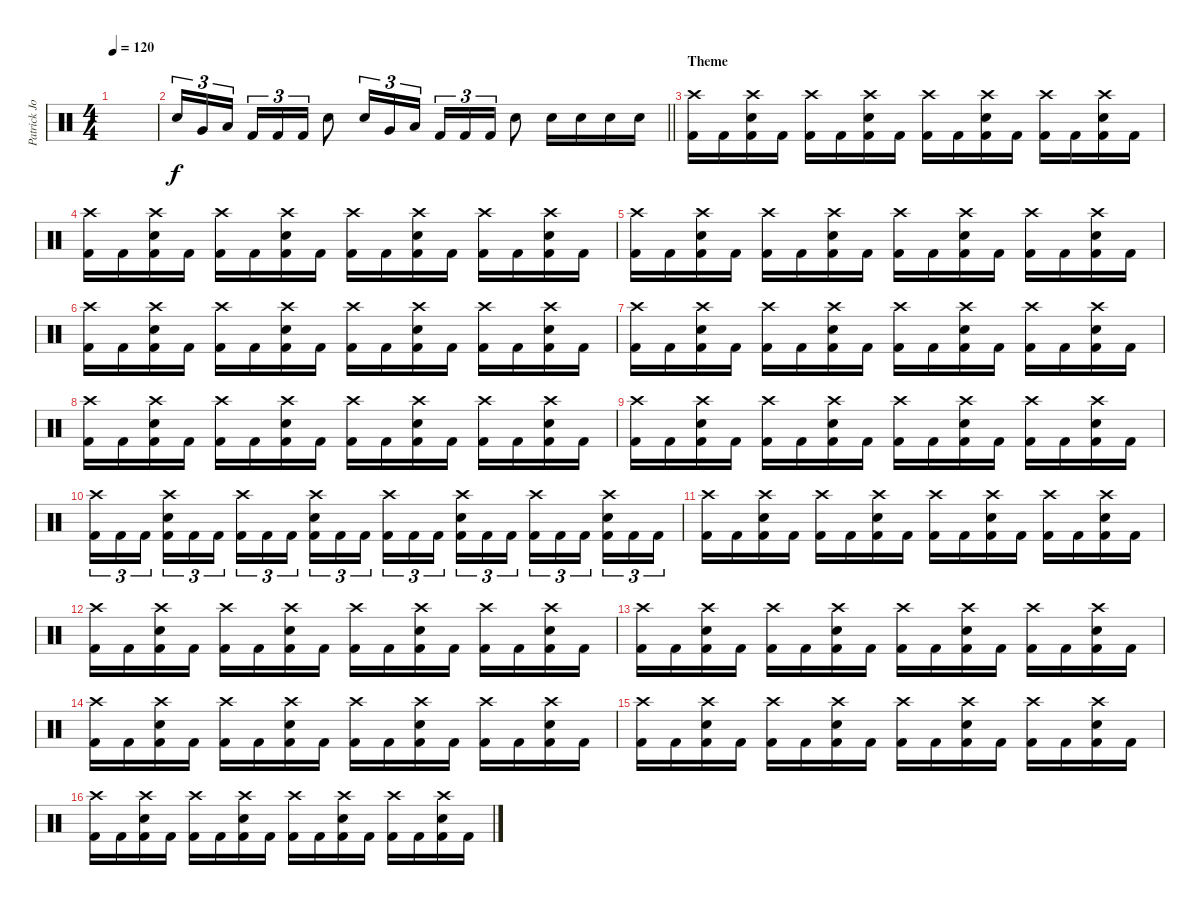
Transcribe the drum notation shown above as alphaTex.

\track ("Patrick Johansson" "Patrick Jo") {instrument percussion}
\staff {score}
\articulation defaults
\ts (4 4)
\tempo 120
\clef neutral
\ks c
|
\barLineRight lightlight "Snare (hit) 2".16{tu (3 2)} "Very Low Tom (hit)".16{tu (3 2)} "Low Floor Tom (hit)".16{tu (3 2) beam splitsecondary} "Kick (hit) 2".16{tu (3 2)} "Kick (hit) 2".16{tu (3 2)} "Kick (hit) 2".16{tu (3 2)} "Snare (hit) 2".8 "Snare (hit) 2".16{tu (3 2)} "Very Low Tom (hit)".16{tu (3 2)} "Low Floor Tom (hit)".16{tu (3 2)} "Kick (hit) 2".16{tu (3 2)} "Kick (hit) 2".16{tu (3 2)} "Kick (hit) 2".16{tu (3 2)} "Snare (hit) 2".8 "Snare (hit) 2".16 "Snare (hit) 2".16 "Snare (hit) 2".16 "Snare (hit) 2".16
|
\section ("" "Theme")
("Crash high (hit)" "Kick (hit) 2").16 "Kick (hit) 2".16 ("Crash high (hit)" "Snare (hit) 2" "Kick (hit) 2").16 "Kick (hit) 2".16 ("Crash high (hit)" "Kick (hit) 2").16 "Kick (hit) 2".16 ("Crash high (hit)" "Snare (hit) 2" "Kick (hit) 2").16 "Kick (hit) 2".16 ("Crash high (hit)" "Kick (hit) 2").16 "Kick (hit) 2".16 ("Crash high (hit)" "Snare (hit) 2" "Kick (hit) 2").16 "Kick (hit) 2".16 ("Crash high (hit)" "Kick (hit) 2").16 "Kick (hit) 2".16 ("Crash high (hit)" "Snare (hit) 2" "Kick (hit) 2").16 "Kick (hit) 2".16 |
("Crash high (hit)" "Kick (hit) 2").16 "Kick (hit) 2".16 ("Crash high (hit)" "Snare (hit) 2" "Kick (hit) 2").16 "Kick (hit) 2".16 ("Crash high (hit)" "Kick (hit) 2").16 "Kick (hit) 2".16 ("Crash high (hit)" "Snare (hit) 2" "Kick (hit) 2").16 "Kick (hit) 2".16 ("Crash high (hit)" "Kick (hit) 2").16 "Kick (hit) 2".16 ("Crash high (hit)" "Snare (hit) 2" "Kick (hit) 2").16 "Kick (hit) 2".16 ("Crash high (hit)" "Kick (hit) 2").16 "Kick (hit) 2".16 ("Crash high (hit)" "Snare (hit) 2" "Kick (hit) 2").16 "Kick (hit) 2".16 |
("Crash high (hit)" "Kick (hit) 2").16 "Kick (hit) 2".16 ("Crash high (hit)" "Snare (hit) 2" "Kick (hit) 2").16 "Kick (hit) 2".16 ("Crash high (hit)" "Kick (hit) 2").16 "Kick (hit) 2".16 ("Crash high (hit)" "Snare (hit) 2" "Kick (hit) 2").16 "Kick (hit) 2".16 ("Crash high (hit)" "Kick (hit) 2").16 "Kick (hit) 2".16 ("Crash high (hit)" "Snare (hit) 2" "Kick (hit) 2").16 "Kick (hit) 2".16 ("Crash high (hit)" "Kick (hit) 2").16 "Kick (hit) 2".16 ("Crash high (hit)" "Snare (hit) 2" "Kick (hit) 2").16 "Kick (hit) 2".16 |
("Crash high (hit)" "Kick (hit) 2").16 "Kick (hit) 2".16 ("Crash high (hit)" "Snare (hit) 2" "Kick (hit) 2").16 "Kick (hit) 2".16 ("Crash high (hit)" "Kick (hit) 2").16 "Kick (hit) 2".16 ("Crash high (hit)" "Snare (hit) 2" "Kick (hit) 2").16 "Kick (hit) 2".16 ("Crash high (hit)" "Kick (hit) 2").16 "Kick (hit) 2".16 ("Crash high (hit)" "Snare (hit) 2" "Kick (hit) 2").16 "Kick (hit) 2".16 ("Crash high (hit)" "Kick (hit) 2").16 "Kick (hit) 2".16 ("Crash high (hit)" "Snare (hit) 2" "Kick (hit) 2").16 "Kick (hit) 2".16 |
("Crash high (hit)" "Kick (hit) 2").16 "Kick (hit) 2".16 ("Crash high (hit)" "Snare (hit) 2" "Kick (hit) 2").16 "Kick (hit) 2".16 ("Crash high (hit)" "Kick (hit) 2").16 "Kick (hit) 2".16 ("Crash high (hit)" "Snare (hit) 2" "Kick (hit) 2").16 "Kick (hit) 2".16 ("Crash high (hit)" "Kick (hit) 2").16 "Kick (hit) 2".16 ("Crash high (hit)" "Snare (hit) 2" "Kick (hit) 2").16 "Kick (hit) 2".16 ("Crash high (hit)" "Kick (hit) 2").16 "Kick (hit) 2".16 ("Crash high (hit)" "Snare (hit) 2" "Kick (hit) 2").16 "Kick (hit) 2".16 |
("Crash high (hit)" "Kick (hit) 2").16 "Kick (hit) 2".16 ("Crash high (hit)" "Snare (hit) 2" "Kick (hit) 2").16 "Kick (hit) 2".16 ("Crash high (hit)" "Kick (hit) 2").16 "Kick (hit) 2".16 ("Crash high (hit)" "Snare (hit) 2" "Kick (hit) 2").16 "Kick (hit) 2".16 ("Crash high (hit)" "Kick (hit) 2").16 "Kick (hit) 2".16 ("Crash high (hit)" "Snare (hit) 2" "Kick (hit) 2").16 "Kick (hit) 2".16 ("Crash high (hit)" "Kick (hit) 2").16 "Kick (hit) 2".16 ("Crash high (hit)" "Snare (hit) 2" "Kick (hit) 2").16 "Kick (hit) 2".16 |
("Crash high (hit)" "Kick (hit) 2").16 "Kick (hit) 2".16 ("Crash high (hit)" "Snare (hit) 2" "Kick (hit) 2").16 "Kick (hit) 2".16 ("Crash high (hit)" "Kick (hit) 2").16 "Kick (hit) 2".16 ("Crash high (hit)" "Snare (hit) 2" "Kick (hit) 2").16 "Kick (hit) 2".16 ("Crash high (hit)" "Kick (hit) 2").16 "Kick (hit) 2".16 ("Crash high (hit)" "Snare (hit) 2" "Kick (hit) 2").16 "Kick (hit) 2".16 ("Crash high (hit)" "Kick (hit) 2").16 "Kick (hit) 2".16 ("Crash high (hit)" "Snare (hit) 2" "Kick (hit) 2").16 "Kick (hit) 2".16 |
("Crash high (hit)" "Kick (hit) 2").16{tu (3 2)} "Kick (hit) 2".16{tu (3 2)} "Kick (hit) 2".16{tu (3 2) beam splitsecondary} ("Crash high (hit)" "Snare (hit) 2" "Kick (hit) 2").16{tu (3 2)} "Kick (hit) 2".16{tu (3 2)} "Kick (hit) 2".16{tu (3 2)} ("Crash high (hit)" "Kick (hit) 2").16{tu (3 2)} "Kick (hit) 2".16{tu (3 2)} "Kick (hit) 2".16{tu (3 2) beam splitsecondary} ("Crash high (hit)" "Snare (hit) 2" "Kick (hit) 2").16{tu (3 2)} "Kick (hit) 2".16{tu (3 2)} "Kick (hit) 2".16{tu (3 2)} ("Crash high (hit)" "Kick (hit) 2").16{tu (3 2)} "Kick (hit) 2".16{tu (3 2)} "Kick (hit) 2".16{tu (3 2) beam splitsecondary} ("Crash high (hit)" "Snare (hit) 2" "Kick (hit) 2").16{tu (3 2)} "Kick (hit) 2".16{tu (3 2)} "Kick (hit) 2".16{tu (3 2)} ("Crash high (hit)" "Kick (hit) 2").16{tu (3 2)} "Kick (hit) 2".16{tu (3 2)} "Kick (hit) 2".16{tu (3 2) beam splitsecondary} ("Crash high (hit)" "Snare (hit) 2" "Kick (hit) 2").16{tu (3 2)} "Kick (hit) 2".16{tu (3 2)} "Kick (hit) 2".16{tu (3 2)} |
("Crash high (hit)" "Kick (hit) 2").16 "Kick (hit) 2".16 ("Crash high (hit)" "Snare (hit) 2" "Kick (hit) 2").16 "Kick (hit) 2".16 ("Crash high (hit)" "Kick (hit) 2").16 "Kick (hit) 2".16 ("Crash high (hit)" "Snare (hit) 2" "Kick (hit) 2").16 "Kick (hit) 2".16 ("Crash high (hit)" "Kick (hit) 2").16 "Kick (hit) 2".16 ("Crash high (hit)" "Snare (hit) 2" "Kick (hit) 2").16 "Kick (hit) 2".16 ("Crash high (hit)" "Kick (hit) 2").16 "Kick (hit) 2".16 ("Crash high (hit)" "Snare (hit) 2" "Kick (hit) 2").16 "Kick (hit) 2".16 |
("Crash high (hit)" "Kick (hit) 2").16 "Kick (hit) 2".16 ("Crash high (hit)" "Snare (hit) 2" "Kick (hit) 2").16 "Kick (hit) 2".16 ("Crash high (hit)" "Kick (hit) 2").16 "Kick (hit) 2".16 ("Crash high (hit)" "Snare (hit) 2" "Kick (hit) 2").16 "Kick (hit) 2".16 ("Crash high (hit)" "Kick (hit) 2").16 "Kick (hit) 2".16 ("Crash high (hit)" "Snare (hit) 2" "Kick (hit) 2").16 "Kick (hit) 2".16 ("Crash high (hit)" "Kick (hit) 2").16 "Kick (hit) 2".16 ("Crash high (hit)" "Snare (hit) 2" "Kick (hit) 2").16 "Kick (hit) 2".16 |
("Crash high (hit)" "Kick (hit) 2").16 "Kick (hit) 2".16 ("Crash high (hit)" "Snare (hit) 2" "Kick (hit) 2").16 "Kick (hit) 2".16 ("Crash high (hit)" "Kick (hit) 2").16 "Kick (hit) 2".16 ("Crash high (hit)" "Snare (hit) 2" "Kick (hit) 2").16 "Kick (hit) 2".16 ("Crash high (hit)" "Kick (hit) 2").16 "Kick (hit) 2".16 ("Crash high (hit)" "Snare (hit) 2" "Kick (hit) 2").16 "Kick (hit) 2".16 ("Crash high (hit)" "Kick (hit) 2").16 "Kick (hit) 2".16 ("Crash high (hit)" "Snare (hit) 2" "Kick (hit) 2").16 "Kick (hit) 2".16 |
("Crash high (hit)" "Kick (hit) 2").16 "Kick (hit) 2".16 ("Crash high (hit)" "Snare (hit) 2" "Kick (hit) 2").16 "Kick (hit) 2".16 ("Crash high (hit)" "Kick (hit) 2").16 "Kick (hit) 2".16 ("Crash high (hit)" "Snare (hit) 2" "Kick (hit) 2").16 "Kick (hit) 2".16 ("Crash high (hit)" "Kick (hit) 2").16 "Kick (hit) 2".16 ("Crash high (hit)" "Snare (hit) 2" "Kick (hit) 2").16 "Kick (hit) 2".16 ("Crash high (hit)" "Kick (hit) 2").16 "Kick (hit) 2".16 ("Crash high (hit)" "Snare (hit) 2" "Kick (hit) 2").16 "Kick (hit) 2".16 |
("Crash high (hit)" "Kick (hit) 2").16 "Kick (hit) 2".16 ("Crash high (hit)" "Snare (hit) 2" "Kick (hit) 2").16 "Kick (hit) 2".16 ("Crash high (hit)" "Kick (hit) 2").16 "Kick (hit) 2".16 ("Crash high (hit)" "Snare (hit) 2" "Kick (hit) 2").16 "Kick (hit) 2".16 ("Crash high (hit)" "Kick (hit) 2").16 "Kick (hit) 2".16 ("Crash high (hit)" "Snare (hit) 2" "Kick (hit) 2").16 "Kick (hit) 2".16 ("Crash high (hit)" "Kick (hit) 2").16 "Kick (hit) 2".16 ("Crash high (hit)" "Snare (hit) 2" "Kick (hit) 2").16 "Kick (hit) 2".16 |
("Crash high (hit)" "Kick (hit) 2").16 "Kick (hit) 2".16 ("Crash high (hit)" "Snare (hit) 2" "Kick (hit) 2").16 "Kick (hit) 2".16 ("Crash high (hit)" "Kick (hit) 2").16 "Kick (hit) 2".16 ("Crash high (hit)" "Snare (hit) 2" "Kick (hit) 2").16 "Kick (hit) 2".16 ("Crash high (hit)" "Kick (hit) 2").16 "Kick (hit) 2".16 ("Crash high (hit)" "Snare (hit) 2" "Kick (hit) 2").16 "Kick (hit) 2".16 ("Crash high (hit)" "Kick (hit) 2").16 "Kick (hit) 2".16 ("Crash high (hit)" "Snare (hit) 2" "Kick (hit) 2").16 "Kick (hit) 2".16
